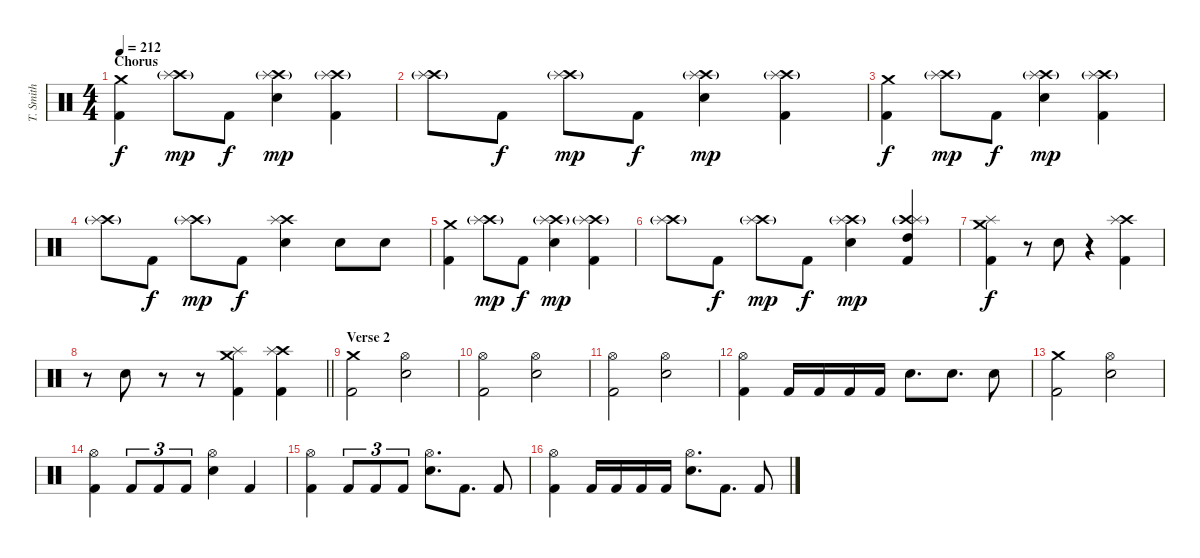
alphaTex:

\track ("T. Smith" "T. Smith") {instrument percussion}
\staff {score}
\articulation defaults
\ts (4 4)
\section ("" "Chorus")
\tempo 212
\clef neutral
\ks c
("Crash medium (hit)" "Kick (hit) 2").4{dy f} ("Crash high (hit)"{g} "Splash (hit)").8{dy mp} "Kick (hit) 2".8{dy f} ("Crash high (hit)"{g} "Splash (hit)" "Electric Snare (hit)").4{dy mp} ("Crash high (hit)"{g} "Splash (hit)" "Kick (hit) 2").4 |
("Crash high (hit)"{g} "Splash (hit)").8 "Kick (hit) 2".8{dy f} ("Crash high (hit)"{g} "Splash (hit)").8{dy mp} "Kick (hit) 2".8{dy f} ("Crash high (hit)"{g} "Splash (hit)" "Electric Snare (hit)").4{dy mp} ("Crash high (hit)"{g} "Splash (hit)" "Kick (hit) 2").4 |
("Crash medium (hit)" "Kick (hit) 2").4{dy f} ("Crash high (hit)"{g} "Splash (hit)").8{dy mp} "Kick (hit) 2".8{dy f} ("Crash high (hit)"{g} "Splash (hit)" "Electric Snare (hit)").4{dy mp} ("Crash high (hit)"{g} "Splash (hit)" "Kick (hit) 2").4 |
("Crash high (hit)"{g} "Splash (hit)").8 "Kick (hit) 2".8{dy f} ("Crash high (hit)"{g} "Splash (hit)").8{dy mp} "Kick (hit) 2".8{dy f} ("Crash high (hit)" "Splash (hit)" "Electric Snare (hit)").4 "Electric Snare (hit)".8 "Electric Snare (hit)".8 |
("Crash medium (hit)" "Kick (hit) 2").4 ("Crash high (hit)"{g} "Splash (hit)").8{dy mp} "Kick (hit) 2".8{dy f} ("Crash high (hit)"{g} "Splash (hit)" "Electric Snare (hit)").4{dy mp} ("Crash high (hit)"{g} "Splash (hit)" "Kick (hit) 2").4 |
("Crash high (hit)"{g} "Splash (hit)").8 "Kick (hit) 2".8{dy f} ("Crash high (hit)"{g} "Splash (hit)").8{dy mp} "Kick (hit) 2".8{dy f} ("Crash high (hit)"{g} "Splash (hit)" "Electric Snare (hit)").4{dy mp} ("Crash high (hit)"{g} "Splash (hit)" "High Tom (hit)" "Kick (hit) 2").4 |
("Crash medium (hit)" "Splash (hit)" "Kick (hit) 2").4{dy f} r.8 "Electric Snare (hit)".8 r.4 ("Crash high (hit)" "Splash (hit)" "Kick (hit) 2").4 |
\barLineRight lightlight
r.8 "Electric Snare (hit)".8 r.8 r.8 ("Crash medium (hit)" "Splash (hit)" "Kick (hit) 2").4 ("Crash high (hit)" "Splash (hit)" "Kick (hit) 2").4 |
\section ("" "Verse 2")
("Crash medium (hit)" "Kick (hit) 2").2 ("Hi-Hat (open)" "Electric Snare (hit)").2 |
("Hi-Hat (open)" "Kick (hit) 2").2 ("Hi-Hat (open)" "Electric Snare (hit)").2 |
("Hi-Hat (open)" "Kick (hit) 2").2 ("Hi-Hat (open)" "Electric Snare (hit)").2 |
("Hi-Hat (open)" "Kick (hit) 2").4 "Kick (hit) 2".16 "Kick (hit) 2".16 "Kick (hit) 2".16 "Kick (hit) 2".16 "Electric Snare (hit)".8{d} "Electric Snare (hit)".8{d} "Electric Snare (hit)".8 |
("Crash medium (hit)" "Kick (hit) 2").2 ("Hi-Hat (open)" "Electric Snare (hit)").2 |
("Hi-Hat (open)" "Kick (hit) 2").4 "Kick (hit) 2".8{tu (3 2)} "Kick (hit) 2".8{tu (3 2)} "Kick (hit) 2".8{tu (3 2)} ("Hi-Hat (open)" "Electric Snare (hit)").4 "Kick (hit) 2".4 |
("Hi-Hat (open)" "Kick (hit) 2").4 "Kick (hit) 2".8{tu (3 2)} "Kick (hit) 2".8{tu (3 2)} "Kick (hit) 2".8{tu (3 2)} ("Hi-Hat (open)" "Electric Snare (hit)").8{d} "Kick (hit) 2".8{d} "Kick (hit) 2".8 |
("Hi-Hat (open)" "Kick (hit) 2").4 "Kick (hit) 2".16 "Kick (hit) 2".16 "Kick (hit) 2".16 "Kick (hit) 2".16 ("Hi-Hat (open)" "Electric Snare (hit)").8{d} "Kick (hit) 2".8{d} "Kick (hit) 2".8
